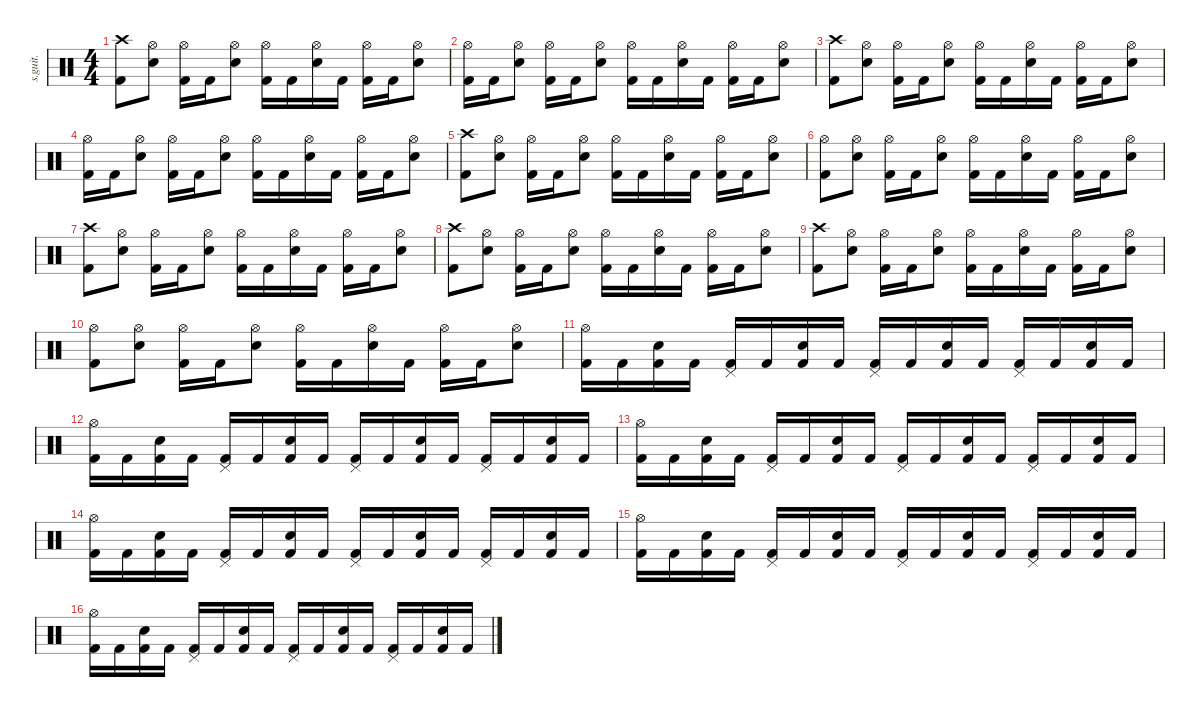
\defaultSystemsLayout 4
\hideDynamics
\bracketExtendMode nobrackets
\track ("" "s.guit.") {instrument percussion}
\staff {score}
\articulation defaults
\ts (4 4)
\tempo (150 hide)
\clef neutral
\ks c
("Crash high (hit)" "Kick (hit) 2").8{dy f} ("Hi-Hat (open)" "Snare (hit) 2").8 ("Hi-Hat (open)" "Kick (hit) 2").16 "Kick (hit) 2".16 ("Hi-Hat (open)" "Snare (hit) 2").8 ("Hi-Hat (open)" "Kick (hit) 2").16 "Kick (hit) 2".16 ("Hi-Hat (open)" "Snare (hit) 2").16 "Kick (hit) 2".16 ("Hi-Hat (open)" "Kick (hit) 2").16 "Kick (hit) 2".16 ("Hi-Hat (open)" "Snare (hit) 2").8 |
("Hi-Hat (open)" "Kick (hit) 2").16 "Kick (hit) 2".16 ("Hi-Hat (open)" "Snare (hit) 2").8 ("Hi-Hat (open)" "Kick (hit) 2").16 "Kick (hit) 2".16 ("Hi-Hat (open)" "Snare (hit) 2").8 ("Hi-Hat (open)" "Kick (hit) 2").16 "Kick (hit) 2".16 ("Hi-Hat (open)" "Snare (hit) 2").16 "Kick (hit) 2".16 ("Hi-Hat (open)" "Kick (hit) 2").16 "Kick (hit) 2".16 ("Hi-Hat (open)" "Snare (hit) 2").8 |
("Crash high (hit)" "Kick (hit) 2").8 ("Hi-Hat (open)" "Snare (hit) 2").8 ("Hi-Hat (open)" "Kick (hit) 2").16 "Kick (hit) 2".16 ("Hi-Hat (open)" "Snare (hit) 2").8 ("Hi-Hat (open)" "Kick (hit) 2").16 "Kick (hit) 2".16 ("Hi-Hat (open)" "Snare (hit) 2").16 "Kick (hit) 2".16 ("Hi-Hat (open)" "Kick (hit) 2").16 "Kick (hit) 2".16 ("Hi-Hat (open)" "Snare (hit) 2").8 |
("Hi-Hat (open)" "Kick (hit) 2").16 "Kick (hit) 2".16 ("Hi-Hat (open)" "Snare (hit) 2").8 ("Hi-Hat (open)" "Kick (hit) 2").16 "Kick (hit) 2".16 ("Hi-Hat (open)" "Snare (hit) 2").8 ("Hi-Hat (open)" "Kick (hit) 2").16 "Kick (hit) 2".16 ("Hi-Hat (open)" "Snare (hit) 2").16 "Kick (hit) 2".16 ("Hi-Hat (open)" "Kick (hit) 2").16 "Kick (hit) 2".16 ("Hi-Hat (open)" "Snare (hit) 2").8 |
("Crash high (hit)" "Kick (hit) 2").8 ("Hi-Hat (open)" "Snare (hit) 2").8 ("Hi-Hat (open)" "Kick (hit) 2").16 "Kick (hit) 2".16 ("Hi-Hat (open)" "Snare (hit) 2").8 ("Hi-Hat (open)" "Kick (hit) 2").16 "Kick (hit) 2".16 ("Hi-Hat (open)" "Snare (hit) 2").16 "Kick (hit) 2".16 ("Hi-Hat (open)" "Kick (hit) 2").16 "Kick (hit) 2".16 ("Hi-Hat (open)" "Snare (hit) 2").8 |
("Hi-Hat (open)" "Kick (hit) 2").8 ("Hi-Hat (open)" "Snare (hit) 2").8 ("Hi-Hat (open)" "Kick (hit) 2").16 "Kick (hit) 2".16 ("Hi-Hat (open)" "Snare (hit) 2").8 ("Hi-Hat (open)" "Kick (hit) 2").16 "Kick (hit) 2".16 ("Hi-Hat (open)" "Snare (hit) 2").16 "Kick (hit) 2".16 ("Hi-Hat (open)" "Kick (hit) 2").16 "Kick (hit) 2".16 ("Hi-Hat (open)" "Snare (hit) 2").8 |
("Crash high (hit)" "Kick (hit) 2").8 ("Hi-Hat (open)" "Snare (hit) 2").8 ("Hi-Hat (open)" "Kick (hit) 2").16 "Kick (hit) 2".16 ("Hi-Hat (open)" "Snare (hit) 2").8 ("Hi-Hat (open)" "Kick (hit) 2").16 "Kick (hit) 2".16 ("Hi-Hat (open)" "Snare (hit) 2").16 "Kick (hit) 2".16 ("Hi-Hat (open)" "Kick (hit) 2").16 "Kick (hit) 2".16 ("Hi-Hat (open)" "Snare (hit) 2").8 |
("Crash high (hit)" "Kick (hit) 2").8 ("Hi-Hat (open)" "Snare (hit) 2").8 ("Hi-Hat (open)" "Kick (hit) 2").16 "Kick (hit) 2".16 ("Hi-Hat (open)" "Snare (hit) 2").8 ("Hi-Hat (open)" "Kick (hit) 2").16 "Kick (hit) 2".16 ("Hi-Hat (open)" "Snare (hit) 2").16 "Kick (hit) 2".16 ("Hi-Hat (open)" "Kick (hit) 2").16 "Kick (hit) 2".16 ("Hi-Hat (open)" "Snare (hit) 2").8 |
("Crash high (hit)" "Kick (hit) 2").8 ("Hi-Hat (open)" "Snare (hit) 2").8 ("Hi-Hat (open)" "Kick (hit) 2").16 "Kick (hit) 2".16 ("Hi-Hat (open)" "Snare (hit) 2").8 ("Hi-Hat (open)" "Kick (hit) 2").16 "Kick (hit) 2".16 ("Hi-Hat (open)" "Snare (hit) 2").16 "Kick (hit) 2".16 ("Hi-Hat (open)" "Kick (hit) 2").16 "Kick (hit) 2".16 ("Hi-Hat (open)" "Snare (hit) 2").8 |
("Hi-Hat (open)" "Kick (hit) 2").8 ("Hi-Hat (open)" "Snare (hit) 2").8 ("Hi-Hat (open)" "Kick (hit) 2").16 "Kick (hit) 2".16 ("Hi-Hat (open)" "Snare (hit) 2").8 ("Hi-Hat (open)" "Kick (hit) 2").16 "Kick (hit) 2".16 ("Hi-Hat (open)" "Snare (hit) 2").16 "Kick (hit) 2".16 ("Hi-Hat (open)" "Kick (hit) 2").16 "Kick (hit) 2".16 ("Hi-Hat (open)" "Snare (hit) 2").8 |
("Hi-Hat (open)" "Kick (hit) 2").16 "Kick (hit) 2".16 ("Snare (hit) 2" "Kick (hit) 2").16 "Kick (hit) 2".16 ("Kick (hit) 2" "Pedal Hi-Hat (hit)").16 "Kick (hit) 2".16 ("Snare (hit) 2" "Kick (hit) 2").16 "Kick (hit) 2".16 ("Kick (hit) 2" "Pedal Hi-Hat (hit)").16 "Kick (hit) 2".16 ("Snare (hit) 2" "Kick (hit) 2").16 "Kick (hit) 2".16 ("Kick (hit) 2" "Pedal Hi-Hat (hit)").16 "Kick (hit) 2".16 ("Snare (hit) 2" "Kick (hit) 2").16 "Kick (hit) 2".16 |
("Hi-Hat (open)" "Kick (hit) 2").16 "Kick (hit) 2".16 ("Snare (hit) 2" "Kick (hit) 2").16 "Kick (hit) 2".16 ("Kick (hit) 2" "Pedal Hi-Hat (hit)").16 "Kick (hit) 2".16 ("Snare (hit) 2" "Kick (hit) 2").16 "Kick (hit) 2".16 ("Kick (hit) 2" "Pedal Hi-Hat (hit)").16 "Kick (hit) 2".16 ("Snare (hit) 2" "Kick (hit) 2").16 "Kick (hit) 2".16 ("Kick (hit) 2" "Pedal Hi-Hat (hit)").16 "Kick (hit) 2".16 ("Snare (hit) 2" "Kick (hit) 2").16 "Kick (hit) 2".16 |
("Hi-Hat (open)" "Kick (hit) 2").16 "Kick (hit) 2".16 ("Snare (hit) 2" "Kick (hit) 2").16 "Kick (hit) 2".16 ("Kick (hit) 2" "Pedal Hi-Hat (hit)").16 "Kick (hit) 2".16 ("Snare (hit) 2" "Kick (hit) 2").16 "Kick (hit) 2".16 ("Kick (hit) 2" "Pedal Hi-Hat (hit)").16 "Kick (hit) 2".16 ("Snare (hit) 2" "Kick (hit) 2").16 "Kick (hit) 2".16 ("Kick (hit) 2" "Pedal Hi-Hat (hit)").16 "Kick (hit) 2".16 ("Snare (hit) 2" "Kick (hit) 2").16 "Kick (hit) 2".16 |
("Hi-Hat (open)" "Kick (hit) 2").16 "Kick (hit) 2".16 ("Snare (hit) 2" "Kick (hit) 2").16 "Kick (hit) 2".16 ("Kick (hit) 2" "Pedal Hi-Hat (hit)").16 "Kick (hit) 2".16 ("Snare (hit) 2" "Kick (hit) 2").16 "Kick (hit) 2".16 ("Kick (hit) 2" "Pedal Hi-Hat (hit)").16 "Kick (hit) 2".16 ("Snare (hit) 2" "Kick (hit) 2").16 "Kick (hit) 2".16 ("Kick (hit) 2" "Pedal Hi-Hat (hit)").16 "Kick (hit) 2".16 ("Snare (hit) 2" "Kick (hit) 2").16 "Kick (hit) 2".16 |
("Hi-Hat (open)" "Kick (hit) 2").16 "Kick (hit) 2".16 ("Snare (hit) 2" "Kick (hit) 2").16 "Kick (hit) 2".16 ("Kick (hit) 2" "Pedal Hi-Hat (hit)").16 "Kick (hit) 2".16 ("Snare (hit) 2" "Kick (hit) 2").16 "Kick (hit) 2".16 ("Kick (hit) 2" "Pedal Hi-Hat (hit)").16 "Kick (hit) 2".16 ("Snare (hit) 2" "Kick (hit) 2").16 "Kick (hit) 2".16 ("Kick (hit) 2" "Pedal Hi-Hat (hit)").16 "Kick (hit) 2".16 ("Snare (hit) 2" "Kick (hit) 2").16 "Kick (hit) 2".16 |
("Hi-Hat (open)" "Kick (hit) 2").16 "Kick (hit) 2".16 ("Snare (hit) 2" "Kick (hit) 2").16 "Kick (hit) 2".16 ("Kick (hit) 2" "Pedal Hi-Hat (hit)").16 "Kick (hit) 2".16 ("Snare (hit) 2" "Kick (hit) 2").16 "Kick (hit) 2".16 ("Kick (hit) 2" "Pedal Hi-Hat (hit)").16 "Kick (hit) 2".16 ("Snare (hit) 2" "Kick (hit) 2").16 "Kick (hit) 2".16 ("Kick (hit) 2" "Pedal Hi-Hat (hit)").16 "Kick (hit) 2".16 ("Snare (hit) 2" "Kick (hit) 2").16 "Kick (hit) 2".16
